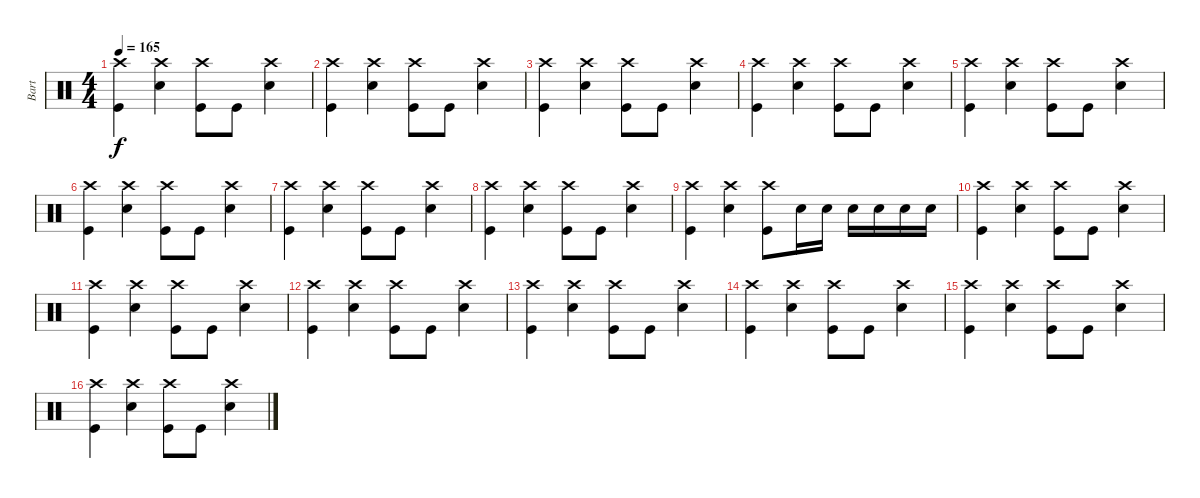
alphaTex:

\track ("Bart" "Bart") {instrument percussion}
\staff {score}
\articulation defaults
\ts (4 4)
\tempo 165
\clef neutral
\ks c
("Kick (hit)" "Crash high (hit)").4{dy f} ("Electric Snare (hit)" "Crash high (hit)").4 ("Kick (hit)" "Crash high (hit)").8 "Kick (hit)".8 ("Electric Snare (hit)" "Crash high (hit)").4 |
("Kick (hit)" "Crash high (hit)").4 ("Electric Snare (hit)" "Crash high (hit)").4 ("Kick (hit)" "Crash high (hit)").8 "Kick (hit)".8 ("Electric Snare (hit)" "Crash high (hit)").4 |
("Kick (hit)" "Crash high (hit)").4 ("Electric Snare (hit)" "Crash high (hit)").4 ("Kick (hit)" "Crash high (hit)").8 "Kick (hit)".8 ("Electric Snare (hit)" "Crash high (hit)").4 |
("Kick (hit)" "Crash high (hit)").4 ("Electric Snare (hit)" "Crash high (hit)").4 ("Kick (hit)" "Crash high (hit)").8 "Kick (hit)".8 ("Electric Snare (hit)" "Crash high (hit)").4 |
("Kick (hit)" "Crash high (hit)").4 ("Electric Snare (hit)" "Crash high (hit)").4 ("Kick (hit)" "Crash high (hit)").8 "Kick (hit)".8 ("Electric Snare (hit)" "Crash high (hit)").4 |
("Kick (hit)" "Crash high (hit)").4 ("Electric Snare (hit)" "Crash high (hit)").4 ("Kick (hit)" "Crash high (hit)").8 "Kick (hit)".8 ("Electric Snare (hit)" "Crash high (hit)").4 |
("Kick (hit)" "Crash high (hit)").4 ("Electric Snare (hit)" "Crash high (hit)").4 ("Kick (hit)" "Crash high (hit)").8 "Kick (hit)".8 ("Electric Snare (hit)" "Crash high (hit)").4 |
("Kick (hit)" "Crash high (hit)").4 ("Electric Snare (hit)" "Crash high (hit)").4 ("Kick (hit)" "Crash high (hit)").8 "Kick (hit)".8 ("Electric Snare (hit)" "Crash high (hit)").4 |
("Kick (hit)" "Crash high (hit)").4 ("Electric Snare (hit)" "Crash high (hit)").4 ("Kick (hit)" "Crash high (hit)").8 "Electric Snare (hit)".16 "Electric Snare (hit)".16 "Electric Snare (hit)".16 "Electric Snare (hit)".16 "Electric Snare (hit)".16 "Electric Snare (hit)".16 |
("Kick (hit)" "Crash high (hit)").4 ("Electric Snare (hit)" "Crash high (hit)").4 ("Kick (hit)" "Crash high (hit)").8 "Kick (hit)".8 ("Electric Snare (hit)" "Crash high (hit)").4 |
("Kick (hit)" "Crash high (hit)").4 ("Electric Snare (hit)" "Crash high (hit)").4 ("Kick (hit)" "Crash high (hit)").8 "Kick (hit)".8 ("Electric Snare (hit)" "Crash high (hit)").4 |
("Kick (hit)" "Crash high (hit)").4 ("Electric Snare (hit)" "Crash high (hit)").4 ("Kick (hit)" "Crash high (hit)").8 "Kick (hit)".8 ("Electric Snare (hit)" "Crash high (hit)").4 |
("Kick (hit)" "Crash high (hit)").4 ("Electric Snare (hit)" "Crash high (hit)").4 ("Kick (hit)" "Crash high (hit)").8 "Kick (hit)".8 ("Electric Snare (hit)" "Crash high (hit)").4 |
("Kick (hit)" "Crash high (hit)").4 ("Electric Snare (hit)" "Crash high (hit)").4 ("Kick (hit)" "Crash high (hit)").8 "Kick (hit)".8 ("Electric Snare (hit)" "Crash high (hit)").4 |
("Kick (hit)" "Crash high (hit)").4 ("Electric Snare (hit)" "Crash high (hit)").4 ("Kick (hit)" "Crash high (hit)").8 "Kick (hit)".8 ("Electric Snare (hit)" "Crash high (hit)").4 |
("Kick (hit)" "Crash high (hit)").4 ("Electric Snare (hit)" "Crash high (hit)").4 ("Kick (hit)" "Crash high (hit)").8 "Kick (hit)".8 ("Electric Snare (hit)" "Crash high (hit)").4
